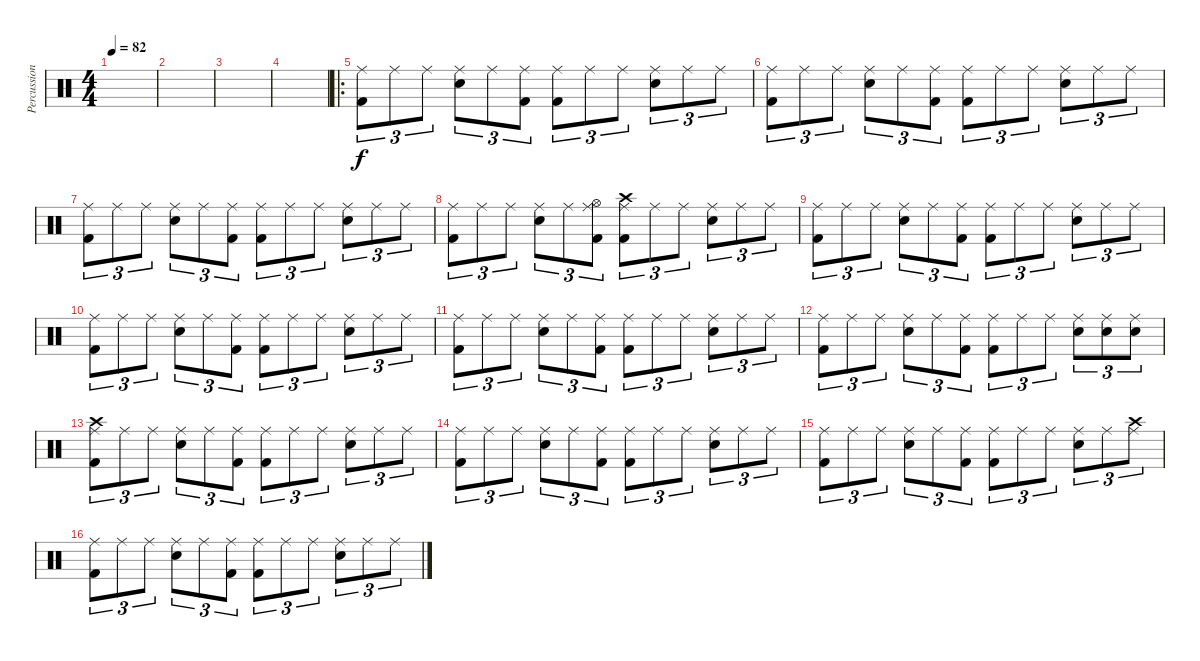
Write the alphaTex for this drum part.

\track ("Percussion" "Percussion") {instrument percussion}
\staff {score}
\articulation defaults
\ts (4 4)
\tempo 82
\clef neutral
\ks c
|
|
|
|
\ro
("Ride (middle)" "Kick (hit) 2").8{tu (3 2)} "Ride (middle)".8{tu (3 2)} "Ride (middle)".8{tu (3 2)} ("Ride (middle)" "Snare (hit) 2").8{tu (3 2)} "Ride (middle)".8{tu (3 2)} ("Ride (middle)" "Kick (hit) 2").8{tu (3 2)} ("Ride (middle)" "Kick (hit) 2").8{tu (3 2)} "Ride (middle)".8{tu (3 2)} "Ride (middle)".8{tu (3 2)} ("Ride (middle)" "Snare (hit) 2").8{tu (3 2)} "Ride (middle)".8{tu (3 2)} "Ride (middle)".8{tu (3 2)} |
("Ride (middle)" "Kick (hit) 2").8{tu (3 2)} "Ride (middle)".8{tu (3 2)} "Ride (middle)".8{tu (3 2)} ("Ride (middle)" "Snare (hit) 2").8{tu (3 2)} "Ride (middle)".8{tu (3 2)} ("Ride (middle)" "Kick (hit) 2").8{tu (3 2)} ("Ride (middle)" "Kick (hit) 2").8{tu (3 2)} "Ride (middle)".8{tu (3 2)} "Ride (middle)".8{tu (3 2)} ("Ride (middle)" "Snare (hit) 2").8{tu (3 2)} "Ride (middle)".8{tu (3 2)} "Ride (middle)".8{tu (3 2)} |
("Ride (middle)" "Kick (hit) 2").8{tu (3 2)} "Ride (middle)".8{tu (3 2)} "Ride (middle)".8{tu (3 2)} ("Ride (middle)" "Snare (hit) 2").8{tu (3 2)} "Ride (middle)".8{tu (3 2)} ("Ride (middle)" "Kick (hit) 2").8{tu (3 2)} ("Ride (middle)" "Kick (hit) 2").8{tu (3 2)} "Ride (middle)".8{tu (3 2)} "Ride (middle)".8{tu (3 2)} ("Ride (middle)" "Snare (hit) 2").8{tu (3 2)} "Ride (middle)".8{tu (3 2)} "Ride (middle)".8{tu (3 2)} |
("Ride (middle)" "Kick (hit) 2").8{tu (3 2)} "Ride (middle)".8{tu (3 2)} "Ride (middle)".8{tu (3 2)} ("Ride (middle)" "Snare (hit) 2").8{tu (3 2)} "Ride (middle)".8{tu (3 2)} ("Ride (middle)" "Hi-Hat (open)" "Kick (hit) 2").8{tu (3 2)} ("Ride (middle)" "Crash high (hit)" "Kick (hit) 2").8{tu (3 2)} "Ride (middle)".8{tu (3 2)} "Ride (middle)".8{tu (3 2)} ("Ride (middle)" "Snare (hit) 2").8{tu (3 2)} "Ride (middle)".8{tu (3 2)} "Ride (middle)".8{tu (3 2)} |
("Ride (middle)" "Kick (hit) 2").8{tu (3 2)} "Ride (middle)".8{tu (3 2)} "Ride (middle)".8{tu (3 2)} ("Ride (middle)" "Snare (hit) 2").8{tu (3 2)} "Ride (middle)".8{tu (3 2)} ("Ride (middle)" "Kick (hit) 2").8{tu (3 2)} ("Ride (middle)" "Kick (hit) 2").8{tu (3 2)} "Ride (middle)".8{tu (3 2)} "Ride (middle)".8{tu (3 2)} ("Ride (middle)" "Snare (hit) 2").8{tu (3 2)} "Ride (middle)".8{tu (3 2)} "Ride (middle)".8{tu (3 2)} |
("Ride (middle)" "Kick (hit) 2").8{tu (3 2)} "Ride (middle)".8{tu (3 2)} "Ride (middle)".8{tu (3 2)} ("Ride (middle)" "Snare (hit) 2").8{tu (3 2)} "Ride (middle)".8{tu (3 2)} ("Ride (middle)" "Kick (hit) 2").8{tu (3 2)} ("Ride (middle)" "Kick (hit) 2").8{tu (3 2)} "Ride (middle)".8{tu (3 2)} "Ride (middle)".8{tu (3 2)} ("Ride (middle)" "Snare (hit) 2").8{tu (3 2)} "Ride (middle)".8{tu (3 2)} "Ride (middle)".8{tu (3 2)} |
("Ride (middle)" "Kick (hit) 2").8{tu (3 2)} "Ride (middle)".8{tu (3 2)} "Ride (middle)".8{tu (3 2)} ("Ride (middle)" "Snare (hit) 2").8{tu (3 2)} "Ride (middle)".8{tu (3 2)} ("Ride (middle)" "Kick (hit) 2").8{tu (3 2)} ("Ride (middle)" "Kick (hit) 2").8{tu (3 2)} "Ride (middle)".8{tu (3 2)} "Ride (middle)".8{tu (3 2)} ("Ride (middle)" "Snare (hit) 2").8{tu (3 2)} "Ride (middle)".8{tu (3 2)} "Ride (middle)".8{tu (3 2)} |
("Ride (middle)" "Kick (hit) 2").8{tu (3 2)} "Ride (middle)".8{tu (3 2)} "Ride (middle)".8{tu (3 2)} ("Ride (middle)" "Snare (hit) 2").8{tu (3 2)} "Ride (middle)".8{tu (3 2)} ("Ride (middle)" "Kick (hit) 2").8{tu (3 2)} ("Ride (middle)" "Kick (hit) 2").8{tu (3 2)} "Ride (middle)".8{tu (3 2)} "Ride (middle)".8{tu (3 2)} ("Ride (middle)" "Snare (hit) 2").8{tu (3 2)} ("Ride (middle)" "Snare (hit) 2").8{tu (3 2)} ("Ride (middle)" "Snare (hit) 2").8{tu (3 2)} |
("Ride (middle)" "Crash high (hit)" "Kick (hit) 2").8{tu (3 2)} "Ride (middle)".8{tu (3 2)} "Ride (middle)".8{tu (3 2)} ("Ride (middle)" "Snare (hit) 2").8{tu (3 2)} "Ride (middle)".8{tu (3 2)} ("Ride (middle)" "Kick (hit) 2").8{tu (3 2)} ("Ride (middle)" "Kick (hit) 2").8{tu (3 2)} "Ride (middle)".8{tu (3 2)} "Ride (middle)".8{tu (3 2)} ("Ride (middle)" "Snare (hit) 2").8{tu (3 2)} "Ride (middle)".8{tu (3 2)} "Ride (middle)".8{tu (3 2)} |
("Ride (middle)" "Kick (hit) 2").8{tu (3 2)} "Ride (middle)".8{tu (3 2)} "Ride (middle)".8{tu (3 2)} ("Ride (middle)" "Snare (hit) 2").8{tu (3 2)} "Ride (middle)".8{tu (3 2)} ("Ride (middle)" "Kick (hit) 2").8{tu (3 2)} ("Ride (middle)" "Kick (hit) 2").8{tu (3 2)} "Ride (middle)".8{tu (3 2)} "Ride (middle)".8{tu (3 2)} ("Ride (middle)" "Snare (hit) 2").8{tu (3 2)} "Ride (middle)".8{tu (3 2)} "Ride (middle)".8{tu (3 2)} |
("Ride (middle)" "Kick (hit) 2").8{tu (3 2)} "Ride (middle)".8{tu (3 2)} "Ride (middle)".8{tu (3 2)} ("Ride (middle)" "Snare (hit) 2").8{tu (3 2)} "Ride (middle)".8{tu (3 2)} ("Ride (middle)" "Kick (hit) 2").8{tu (3 2)} ("Ride (middle)" "Kick (hit) 2").8{tu (3 2)} "Ride (middle)".8{tu (3 2)} "Ride (middle)".8{tu (3 2)} ("Ride (middle)" "Snare (hit) 2").8{tu (3 2)} "Ride (middle)".8{tu (3 2)} ("Ride (middle)" "Crash high (hit)").8{tu (3 2)} |
("Ride (middle)" "Kick (hit) 2").8{tu (3 2)} "Ride (middle)".8{tu (3 2)} "Ride (middle)".8{tu (3 2)} ("Ride (middle)" "Snare (hit) 2").8{tu (3 2)} "Ride (middle)".8{tu (3 2)} ("Ride (middle)" "Kick (hit) 2").8{tu (3 2)} ("Ride (middle)" "Kick (hit) 2").8{tu (3 2)} "Ride (middle)".8{tu (3 2)} "Ride (middle)".8{tu (3 2)} ("Ride (middle)" "Snare (hit) 2").8{tu (3 2)} "Ride (middle)".8{tu (3 2)} "Ride (middle)".8{tu (3 2)}
